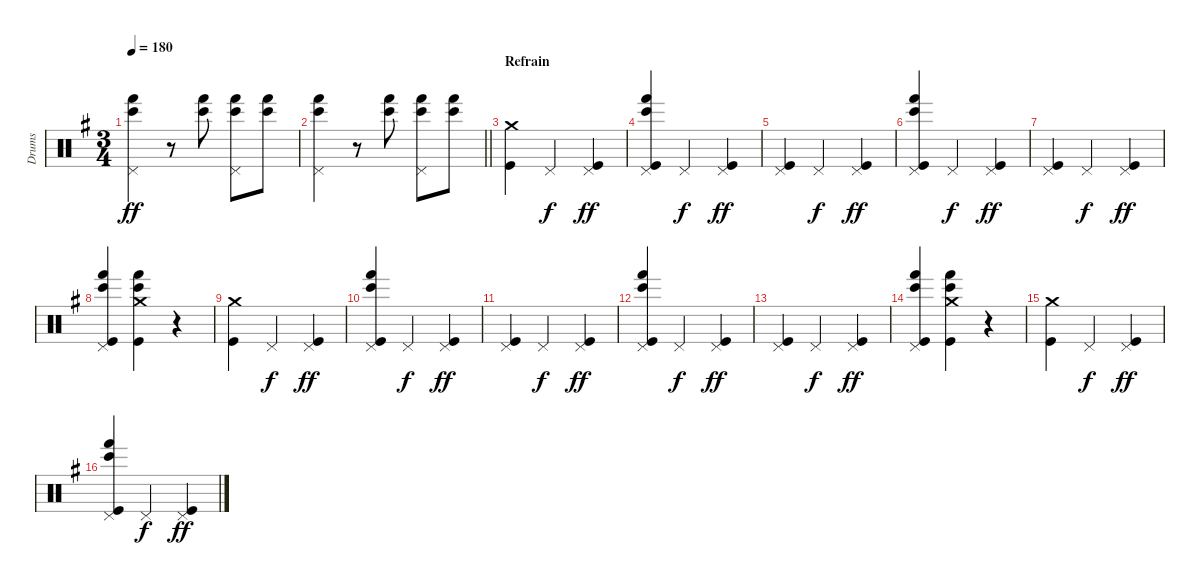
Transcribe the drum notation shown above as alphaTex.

\track ("Drums" "Drums") {instrument percussion bank 24}
\staff {score}
\articulation defaults
\ts (3 4)
\tempo 180
\clef neutral
\ks eminor
("Pedal Hi-Hat (hit)" "Bongo High (hit)" "Hand (hit)").4{dy ff} r.8 ("Bongo High (hit)" "Hand (hit)").8 ("Pedal Hi-Hat (hit)" "Bongo High (hit)" "Hand (hit)").8 ("Bongo High (hit)" "Hand (hit)").8 |
\barLineRight lightlight
("Pedal Hi-Hat (hit)" "Bongo High (hit)" "Hand (hit)").4 r.8 ("Bongo High (hit)" "Hand (hit)").8 ("Pedal Hi-Hat (hit)" "Bongo High (hit)" "Hand (hit)").8 ("Bongo High (hit)" "Hand (hit)").8 |
\section ("" "Refrain")
("Crash medium (hit)" "Kick (hit)").4 "Pedal Hi-Hat (hit)".4{dy f} ("Pedal Hi-Hat (hit)" "Kick (hit)").4{dy ff} |
("Pedal Hi-Hat (hit)" "Bongo High (hit)" "Hand (hit)" "Kick (hit)").4 "Pedal Hi-Hat (hit)".4{dy f} ("Pedal Hi-Hat (hit)" "Kick (hit)").4{dy ff} |
("Pedal Hi-Hat (hit)" "Kick (hit)").4 "Pedal Hi-Hat (hit)".4{dy f} ("Pedal Hi-Hat (hit)" "Kick (hit)").4{dy ff} |
("Pedal Hi-Hat (hit)" "Bongo High (hit)" "Hand (hit)" "Kick (hit)").4 "Pedal Hi-Hat (hit)".4{dy f} ("Pedal Hi-Hat (hit)" "Kick (hit)").4{dy ff} |
("Pedal Hi-Hat (hit)" "Kick (hit)").4 "Pedal Hi-Hat (hit)".4{dy f} ("Pedal Hi-Hat (hit)" "Kick (hit)").4{dy ff} |
("Pedal Hi-Hat (hit)" "Bongo High (hit)" "Hand (hit)" "Kick (hit)").4 ("Crash medium (hit)" "Bongo High (hit)" "Hand (hit)" "Kick (hit)").4 r.4 |
("Crash medium (hit)" "Kick (hit)").4 "Pedal Hi-Hat (hit)".4{dy f} ("Pedal Hi-Hat (hit)" "Kick (hit)").4{dy ff} |
("Pedal Hi-Hat (hit)" "Bongo High (hit)" "Hand (hit)" "Kick (hit)").4 "Pedal Hi-Hat (hit)".4{dy f} ("Pedal Hi-Hat (hit)" "Kick (hit)").4{dy ff} |
("Pedal Hi-Hat (hit)" "Kick (hit)").4 "Pedal Hi-Hat (hit)".4{dy f} ("Pedal Hi-Hat (hit)" "Kick (hit)").4{dy ff} |
("Pedal Hi-Hat (hit)" "Bongo High (hit)" "Hand (hit)" "Kick (hit)").4 "Pedal Hi-Hat (hit)".4{dy f} ("Pedal Hi-Hat (hit)" "Kick (hit)").4{dy ff} |
("Pedal Hi-Hat (hit)" "Kick (hit)").4 "Pedal Hi-Hat (hit)".4{dy f} ("Pedal Hi-Hat (hit)" "Kick (hit)").4{dy ff} |
("Pedal Hi-Hat (hit)" "Bongo High (hit)" "Hand (hit)" "Kick (hit)").4 ("Crash medium (hit)" "Bongo High (hit)" "Hand (hit)" "Kick (hit)").4 r.4 |
("Crash medium (hit)" "Kick (hit)").4 "Pedal Hi-Hat (hit)".4{dy f} ("Pedal Hi-Hat (hit)" "Kick (hit)").4{dy ff} |
("Pedal Hi-Hat (hit)" "Bongo High (hit)" "Hand (hit)" "Kick (hit)").4 "Pedal Hi-Hat (hit)".4{dy f} ("Pedal Hi-Hat (hit)" "Kick (hit)").4{dy ff}
